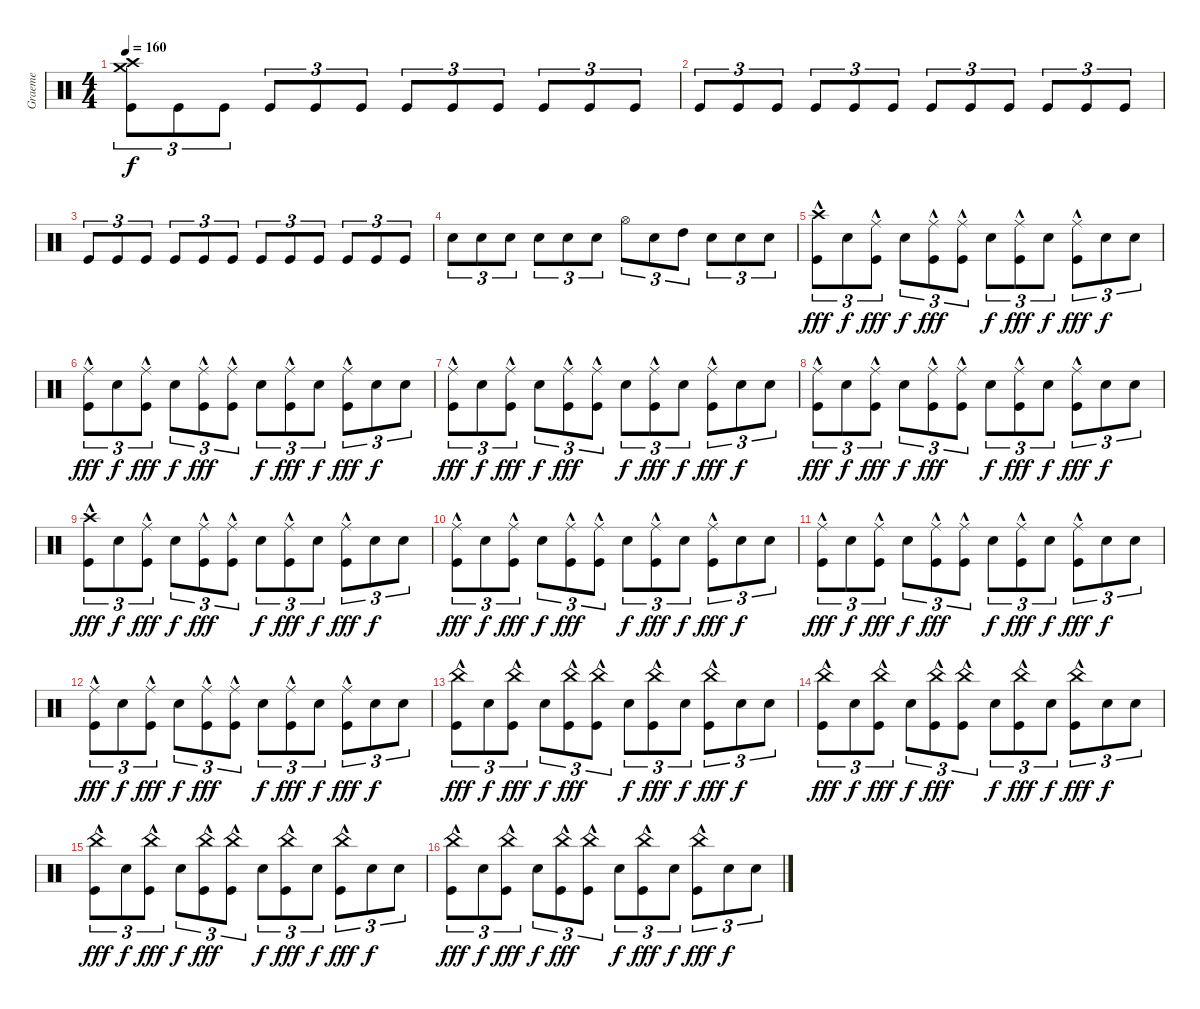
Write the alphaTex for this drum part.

\track ("Graeme" "Graeme") {instrument percussion}
\staff {score}
\articulation defaults
\ts (4 4)
\tempo 160
\clef neutral
\ks c
("Crash medium (hit)" "Crash high (hit)" "Kick (hit)").8{tu (3 2) dy f} "Kick (hit)".8{tu (3 2)} "Kick (hit)".8{tu (3 2)} "Kick (hit)".8{tu (3 2)} "Kick (hit)".8{tu (3 2)} "Kick (hit)".8{tu (3 2)} "Kick (hit)".8{tu (3 2)} "Kick (hit)".8{tu (3 2)} "Kick (hit)".8{tu (3 2)} "Kick (hit)".8{tu (3 2)} "Kick (hit)".8{tu (3 2)} "Kick (hit)".8{tu (3 2)} |
"Kick (hit)".8{tu (3 2)} "Kick (hit)".8{tu (3 2)} "Kick (hit)".8{tu (3 2)} "Kick (hit)".8{tu (3 2)} "Kick (hit)".8{tu (3 2)} "Kick (hit)".8{tu (3 2)} "Kick (hit)".8{tu (3 2)} "Kick (hit)".8{tu (3 2)} "Kick (hit)".8{tu (3 2)} "Kick (hit)".8{tu (3 2)} "Kick (hit)".8{tu (3 2)} "Kick (hit)".8{tu (3 2)} |
"Kick (hit)".8{tu (3 2)} "Kick (hit)".8{tu (3 2)} "Kick (hit)".8{tu (3 2)} "Kick (hit)".8{tu (3 2)} "Kick (hit)".8{tu (3 2)} "Kick (hit)".8{tu (3 2)} "Kick (hit)".8{tu (3 2)} "Kick (hit)".8{tu (3 2)} "Kick (hit)".8{tu (3 2)} "Kick (hit)".8{tu (3 2)} "Kick (hit)".8{tu (3 2)} "Kick (hit)".8{tu (3 2)} |
"Snare (hit) 2".8{tu (3 2)} "Snare (hit) 2".8{tu (3 2)} "Snare (hit) 2".8{tu (3 2)} "Snare (hit) 2".8{tu (3 2)} "Snare (hit) 2".8{tu (3 2)} "Snare (hit) 2".8{tu (3 2)} "Hi-Hat (open)".8{tu (3 2)} "Snare (hit) 2".8{tu (3 2)} "High Tom (hit)".8{tu (3 2)} "Snare (hit) 2".8{tu (3 2)} "Snare (hit) 2".8{tu (3 2)} "Snare (hit) 2".8{tu (3 2)} |
("Crash high (hit)"{hac} "Kick (hit)").8{tu (3 2) dy fff} "Snare (hit) 2".8{tu (3 2) dy f} ("Ride (middle)"{hac} "Kick (hit)").8{tu (3 2) dy fff} "Snare (hit) 2".8{tu (3 2) dy f} ("Ride (middle)"{hac} "Kick (hit)").8{tu (3 2) dy fff} ("Ride (middle)"{hac} "Kick (hit)").8{tu (3 2)} "Snare (hit) 2".8{tu (3 2) dy f} ("Ride (middle)"{hac} "Kick (hit)").8{tu (3 2) dy fff} "Snare (hit) 2".8{tu (3 2) dy f} ("Ride (middle)"{hac} "Kick (hit)").8{tu (3 2) dy fff} "Snare (hit) 2".8{tu (3 2) dy f} "Snare (hit) 2".8{tu (3 2)} |
("Ride (middle)"{hac} "Kick (hit)").8{tu (3 2) dy fff} "Snare (hit) 2".8{tu (3 2) dy f} ("Ride (middle)"{hac} "Kick (hit)").8{tu (3 2) dy fff} "Snare (hit) 2".8{tu (3 2) dy f} ("Ride (middle)"{hac} "Kick (hit)").8{tu (3 2) dy fff} ("Ride (middle)"{hac} "Kick (hit)").8{tu (3 2)} "Snare (hit) 2".8{tu (3 2) dy f} ("Ride (middle)"{hac} "Kick (hit)").8{tu (3 2) dy fff} "Snare (hit) 2".8{tu (3 2) dy f} ("Ride (middle)"{hac} "Kick (hit)").8{tu (3 2) dy fff} "Snare (hit) 2".8{tu (3 2) dy f} "Snare (hit) 2".8{tu (3 2)} |
("Ride (middle)"{hac} "Kick (hit)").8{tu (3 2) dy fff} "Snare (hit) 2".8{tu (3 2) dy f} ("Ride (middle)"{hac} "Kick (hit)").8{tu (3 2) dy fff} "Snare (hit) 2".8{tu (3 2) dy f} ("Ride (middle)"{hac} "Kick (hit)").8{tu (3 2) dy fff} ("Ride (middle)"{hac} "Kick (hit)").8{tu (3 2)} "Snare (hit) 2".8{tu (3 2) dy f} ("Ride (middle)"{hac} "Kick (hit)").8{tu (3 2) dy fff} "Snare (hit) 2".8{tu (3 2) dy f} ("Ride (middle)"{hac} "Kick (hit)").8{tu (3 2) dy fff} "Snare (hit) 2".8{tu (3 2) dy f} "Snare (hit) 2".8{tu (3 2)} |
("Ride (middle)"{hac} "Kick (hit)").8{tu (3 2) dy fff} "Snare (hit) 2".8{tu (3 2) dy f} ("Ride (middle)"{hac} "Kick (hit)").8{tu (3 2) dy fff} "Snare (hit) 2".8{tu (3 2) dy f} ("Ride (middle)"{hac} "Kick (hit)").8{tu (3 2) dy fff} ("Ride (middle)"{hac} "Kick (hit)").8{tu (3 2)} "Snare (hit) 2".8{tu (3 2) dy f} ("Ride (middle)"{hac} "Kick (hit)").8{tu (3 2) dy fff} "Snare (hit) 2".8{tu (3 2) dy f} ("Ride (middle)"{hac} "Kick (hit)").8{tu (3 2) dy fff} "Snare (hit) 2".8{tu (3 2) dy f} "Snare (hit) 2".8{tu (3 2)} |
("Crash high (hit)"{hac} "Kick (hit)").8{tu (3 2) dy fff} "Snare (hit) 2".8{tu (3 2) dy f} ("Ride (middle)"{hac} "Kick (hit)").8{tu (3 2) dy fff} "Snare (hit) 2".8{tu (3 2) dy f} ("Ride (middle)"{hac} "Kick (hit)").8{tu (3 2) dy fff} ("Ride (middle)"{hac} "Kick (hit)").8{tu (3 2)} "Snare (hit) 2".8{tu (3 2) dy f} ("Ride (middle)"{hac} "Kick (hit)").8{tu (3 2) dy fff} "Snare (hit) 2".8{tu (3 2) dy f} ("Ride (middle)"{hac} "Kick (hit)").8{tu (3 2) dy fff} "Snare (hit) 2".8{tu (3 2) dy f} "Snare (hit) 2".8{tu (3 2)} |
("Ride (middle)"{hac} "Kick (hit)").8{tu (3 2) dy fff} "Snare (hit) 2".8{tu (3 2) dy f} ("Ride (middle)"{hac} "Kick (hit)").8{tu (3 2) dy fff} "Snare (hit) 2".8{tu (3 2) dy f} ("Ride (middle)"{hac} "Kick (hit)").8{tu (3 2) dy fff} ("Ride (middle)"{hac} "Kick (hit)").8{tu (3 2)} "Snare (hit) 2".8{tu (3 2) dy f} ("Ride (middle)"{hac} "Kick (hit)").8{tu (3 2) dy fff} "Snare (hit) 2".8{tu (3 2) dy f} ("Ride (middle)"{hac} "Kick (hit)").8{tu (3 2) dy fff} "Snare (hit) 2".8{tu (3 2) dy f} "Snare (hit) 2".8{tu (3 2)} |
("Ride (middle)"{hac} "Kick (hit)").8{tu (3 2) dy fff} "Snare (hit) 2".8{tu (3 2) dy f} ("Ride (middle)"{hac} "Kick (hit)").8{tu (3 2) dy fff} "Snare (hit) 2".8{tu (3 2) dy f} ("Ride (middle)"{hac} "Kick (hit)").8{tu (3 2) dy fff} ("Ride (middle)"{hac} "Kick (hit)").8{tu (3 2)} "Snare (hit) 2".8{tu (3 2) dy f} ("Ride (middle)"{hac} "Kick (hit)").8{tu (3 2) dy fff} "Snare (hit) 2".8{tu (3 2) dy f} ("Ride (middle)"{hac} "Kick (hit)").8{tu (3 2) dy fff} "Snare (hit) 2".8{tu (3 2) dy f} "Snare (hit) 2".8{tu (3 2)} |
("Ride (middle)"{hac} "Kick (hit)").8{tu (3 2) dy fff} "Snare (hit) 2".8{tu (3 2) dy f} ("Ride (middle)"{hac} "Kick (hit)").8{tu (3 2) dy fff} "Snare (hit) 2".8{tu (3 2) dy f} ("Ride (middle)"{hac} "Kick (hit)").8{tu (3 2) dy fff} ("Ride (middle)"{hac} "Kick (hit)").8{tu (3 2)} "Snare (hit) 2".8{tu (3 2) dy f} ("Ride (middle)"{hac} "Kick (hit)").8{tu (3 2) dy fff} "Snare (hit) 2".8{tu (3 2) dy f} ("Ride (middle)"{hac} "Kick (hit)").8{tu (3 2) dy fff} "Snare (hit) 2".8{tu (3 2) dy f} "Snare (hit) 2".8{tu (3 2)} |
("China (hit)"{hac} "Kick (hit)").8{tu (3 2) dy fff} "Snare (hit) 2".8{tu (3 2) dy f} ("China (hit)"{hac} "Kick (hit)").8{tu (3 2) dy fff} "Snare (hit) 2".8{tu (3 2) dy f} ("China (hit)"{hac} "Kick (hit)").8{tu (3 2) dy fff} ("China (hit)"{hac} "Kick (hit)").8{tu (3 2)} "Snare (hit) 2".8{tu (3 2) dy f} ("China (hit)"{hac} "Kick (hit)").8{tu (3 2) dy fff} "Snare (hit) 2".8{tu (3 2) dy f} ("China (hit)"{hac} "Kick (hit)").8{tu (3 2) dy fff} "Snare (hit) 2".8{tu (3 2) dy f} "Snare (hit) 2".8{tu (3 2)} |
("China (hit)"{hac} "Kick (hit)").8{tu (3 2) dy fff} "Snare (hit) 2".8{tu (3 2) dy f} ("China (hit)"{hac} "Kick (hit)").8{tu (3 2) dy fff} "Snare (hit) 2".8{tu (3 2) dy f} ("China (hit)"{hac} "Kick (hit)").8{tu (3 2) dy fff} ("China (hit)"{hac} "Kick (hit)").8{tu (3 2)} "Snare (hit) 2".8{tu (3 2) dy f} ("China (hit)"{hac} "Kick (hit)").8{tu (3 2) dy fff} "Snare (hit) 2".8{tu (3 2) dy f} ("China (hit)"{hac} "Kick (hit)").8{tu (3 2) dy fff} "Snare (hit) 2".8{tu (3 2) dy f} "Snare (hit) 2".8{tu (3 2)} |
("China (hit)"{hac} "Kick (hit)").8{tu (3 2) dy fff} "Snare (hit) 2".8{tu (3 2) dy f} ("China (hit)"{hac} "Kick (hit)").8{tu (3 2) dy fff} "Snare (hit) 2".8{tu (3 2) dy f} ("China (hit)"{hac} "Kick (hit)").8{tu (3 2) dy fff} ("China (hit)"{hac} "Kick (hit)").8{tu (3 2)} "Snare (hit) 2".8{tu (3 2) dy f} ("China (hit)"{hac} "Kick (hit)").8{tu (3 2) dy fff} "Snare (hit) 2".8{tu (3 2) dy f} ("China (hit)"{hac} "Kick (hit)").8{tu (3 2) dy fff} "Snare (hit) 2".8{tu (3 2) dy f} "Snare (hit) 2".8{tu (3 2)} |
("China (hit)"{hac} "Kick (hit)").8{tu (3 2) dy fff} "Snare (hit) 2".8{tu (3 2) dy f} ("China (hit)"{hac} "Kick (hit)").8{tu (3 2) dy fff} "Snare (hit) 2".8{tu (3 2) dy f} ("China (hit)"{hac} "Kick (hit)").8{tu (3 2) dy fff} ("China (hit)"{hac} "Kick (hit)").8{tu (3 2)} "Snare (hit) 2".8{tu (3 2) dy f} ("China (hit)"{hac} "Kick (hit)").8{tu (3 2) dy fff} "Snare (hit) 2".8{tu (3 2) dy f} ("China (hit)"{hac} "Kick (hit)").8{tu (3 2) dy fff} "Snare (hit) 2".8{tu (3 2) dy f} "Snare (hit) 2".8{tu (3 2)}
